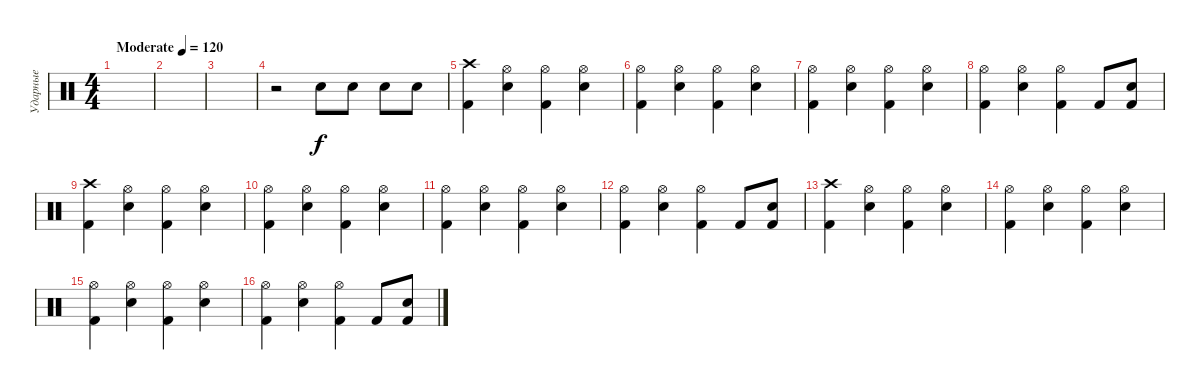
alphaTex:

\track ("Ударные" "Ударные") {instrument percussion}
\staff {score}
\articulation defaults
\ts (4 4)
\tempo (120 "Moderate")
\clef neutral
\ks c
|
|
|
r.2 "Snare (hit) 2".8 "Snare (hit) 2".8 "Snare (hit) 2".8 "Snare (hit) 2".8 |
("Crash high (hit)" "Kick (hit) 2").4 ("Hi-Hat (open)" "Snare (hit) 2").4 ("Hi-Hat (open)" "Kick (hit) 2").4 ("Hi-Hat (open)" "Snare (hit) 2").4 |
("Hi-Hat (open)" "Kick (hit) 2").4 ("Hi-Hat (open)" "Snare (hit) 2").4 ("Hi-Hat (open)" "Kick (hit) 2").4 ("Hi-Hat (open)" "Snare (hit) 2").4 |
("Hi-Hat (open)" "Kick (hit) 2").4 ("Hi-Hat (open)" "Snare (hit) 2").4 ("Hi-Hat (open)" "Kick (hit) 2").4 ("Hi-Hat (open)" "Snare (hit) 2").4 |
("Hi-Hat (open)" "Kick (hit) 2").4 ("Hi-Hat (open)" "Snare (hit) 2").4 ("Hi-Hat (open)" "Kick (hit) 2").4 "Kick (hit) 2".8 ("Snare (hit) 2" "Kick (hit) 2").8 |
("Crash high (hit)" "Kick (hit) 2").4 ("Hi-Hat (open)" "Snare (hit) 2").4 ("Hi-Hat (open)" "Kick (hit) 2").4 ("Hi-Hat (open)" "Snare (hit) 2").4 |
("Hi-Hat (open)" "Kick (hit) 2").4 ("Hi-Hat (open)" "Snare (hit) 2").4 ("Hi-Hat (open)" "Kick (hit) 2").4 ("Hi-Hat (open)" "Snare (hit) 2").4 |
("Hi-Hat (open)" "Kick (hit) 2").4 ("Hi-Hat (open)" "Snare (hit) 2").4 ("Hi-Hat (open)" "Kick (hit) 2").4 ("Hi-Hat (open)" "Snare (hit) 2").4 |
("Hi-Hat (open)" "Kick (hit) 2").4 ("Hi-Hat (open)" "Snare (hit) 2").4 ("Hi-Hat (open)" "Kick (hit) 2").4 "Kick (hit) 2".8 ("Snare (hit) 2" "Kick (hit) 2").8 |
("Crash high (hit)" "Kick (hit) 2").4 ("Hi-Hat (open)" "Snare (hit) 2").4 ("Hi-Hat (open)" "Kick (hit) 2").4 ("Hi-Hat (open)" "Snare (hit) 2").4 |
("Hi-Hat (open)" "Kick (hit) 2").4 ("Hi-Hat (open)" "Snare (hit) 2").4 ("Hi-Hat (open)" "Kick (hit) 2").4 ("Hi-Hat (open)" "Snare (hit) 2").4 |
("Hi-Hat (open)" "Kick (hit) 2").4 ("Hi-Hat (open)" "Snare (hit) 2").4 ("Hi-Hat (open)" "Kick (hit) 2").4 ("Hi-Hat (open)" "Snare (hit) 2").4 |
("Hi-Hat (open)" "Kick (hit) 2").4 ("Hi-Hat (open)" "Snare (hit) 2").4 ("Hi-Hat (open)" "Kick (hit) 2").4 "Kick (hit) 2".8 ("Snare (hit) 2" "Kick (hit) 2").8
